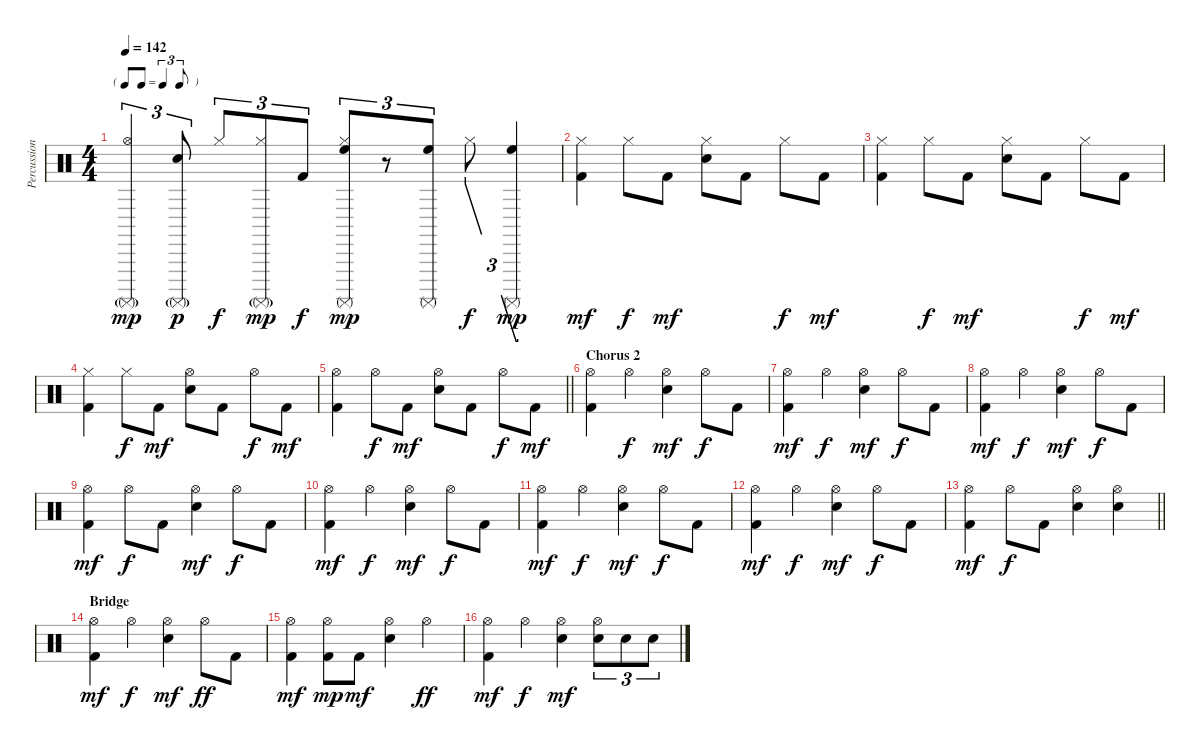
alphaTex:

\track ("Percussion" "Percussion") {instrument percussion}
\staff {score}
\articulation defaults
\ts (4 4)
\tf triplet8th
\tempo 142
\clef neutral
\ks c
("Surdo (mute)"{g} "Hi-Hat (open)").4{tu (3 2) dy mp} ("Surdo (mute)"{g} "Electric Snare (hit)").8{tu (3 2) dy p} "Hi-Hat (closed)".8{tu (3 2) dy f} ("Surdo (mute)"{g} "Hi-Hat (closed)").8{tu (3 2) dy mp} "Kick (hit) 2".8{tu (3 2) dy f} ("Hi-Hat (closed)" "High Floor Tom (hit)" "Surdo (mute)").8{tu (3 2) dy mp} r.8{tu (3 2)} ("High Floor Tom (hit)" "Surdo (mute)").8{tu (3 2)} "Hi-Hat (closed)".8{tu (3 2) dy f} ("High Floor Tom (hit)" "Surdo (mute)").4{tu (3 2) dy mp} |
("Hi-Hat (closed)" "Kick (hit) 2").4{dy mf} "Hi-Hat (closed)".8{dy f} "Kick (hit) 2".8{dy mf} ("Hi-Hat (closed)" "Electric Snare (hit)").8 "Kick (hit) 2".8 "Hi-Hat (closed)".8{dy f} "Kick (hit) 2".8{dy mf} |
("Hi-Hat (closed)" "Kick (hit) 2").4 "Hi-Hat (closed)".8{dy f} "Kick (hit) 2".8{dy mf} ("Hi-Hat (closed)" "Electric Snare (hit)").8 "Kick (hit) 2".8 "Hi-Hat (closed)".8{dy f} "Kick (hit) 2".8{dy mf} |
("Hi-Hat (closed)" "Kick (hit) 2").4 "Hi-Hat (closed)".8{dy f} "Kick (hit) 2".8{dy mf} ("Hi-Hat (open)" "Electric Snare (hit)").8 "Kick (hit) 2".8 "Hi-Hat (open)".8{dy f} "Kick (hit) 2".8{dy mf} |
\barLineRight lightlight
("Hi-Hat (open)" "Kick (hit) 2").4 "Hi-Hat (open)".8{dy f} "Kick (hit) 2".8{dy mf} ("Hi-Hat (open)" "Electric Snare (hit)").8 "Kick (hit) 2".8 "Hi-Hat (open)".8{dy f} "Kick (hit) 2".8{dy mf} |
\section ("" "Chorus 2")
("Hi-Hat (open)" "Kick (hit) 2").4 "Hi-Hat (open)".4{dy f} ("Hi-Hat (open)" "Electric Snare (hit)").4{dy mf} "Hi-Hat (open)".8{dy f} "Kick (hit) 2".8 |
("Hi-Hat (open)" "Kick (hit) 2").4{dy mf} "Hi-Hat (open)".4{dy f} ("Hi-Hat (open)" "Electric Snare (hit)").4{dy mf} "Hi-Hat (open)".8{dy f} "Kick (hit) 2".8 |
("Hi-Hat (open)" "Kick (hit) 2").4{dy mf} "Hi-Hat (open)".4{dy f} ("Hi-Hat (open)" "Electric Snare (hit)").4{dy mf} "Hi-Hat (open)".8{dy f} "Kick (hit) 2".8 |
("Hi-Hat (open)" "Kick (hit) 2").4{dy mf} "Hi-Hat (open)".8{dy f} "Kick (hit) 2".8 ("Hi-Hat (open)" "Electric Snare (hit)").4{dy mf} "Hi-Hat (open)".8{dy f} "Kick (hit) 2".8 |
("Hi-Hat (open)" "Kick (hit) 2").4{dy mf} "Hi-Hat (open)".4{dy f} ("Hi-Hat (open)" "Electric Snare (hit)").4{dy mf} "Hi-Hat (open)".8{dy f} "Kick (hit) 2".8 |
("Hi-Hat (open)" "Kick (hit) 2").4{dy mf} "Hi-Hat (open)".4{dy f} ("Hi-Hat (open)" "Electric Snare (hit)").4{dy mf} "Hi-Hat (open)".8{dy f} "Kick (hit) 2".8 |
("Hi-Hat (open)" "Kick (hit) 2").4{dy mf} "Hi-Hat (open)".4{dy f} ("Hi-Hat (open)" "Electric Snare (hit)").4{dy mf} "Hi-Hat (open)".8{dy f} "Kick (hit) 2".8 |
\barLineRight lightlight
("Hi-Hat (open)" "Kick (hit) 2").4{dy mf} "Hi-Hat (open)".8{dy f} "Kick (hit) 2".8 ("Hi-Hat (open)" "Electric Snare (hit)").4 ("Hi-Hat (open)" "Electric Snare (hit)").4 |
\section ("" "Bridge")
("Hi-Hat (open)" "Kick (hit) 2").4{dy mf} "Hi-Hat (open)".4{dy f} ("Hi-Hat (open)" "Electric Snare (hit)").4{dy mf} "Hi-Hat (open)".8{dy ff} "Kick (hit) 2".8 |
("Hi-Hat (open)" "Kick (hit) 2").4{dy mf} ("Hi-Hat (open)" "Kick (hit) 2").8{dy mp} "Kick (hit) 2".8{dy mf} ("Hi-Hat (open)" "Electric Snare (hit)").4 "Hi-Hat (open)".4{dy ff} |
("Hi-Hat (open)" "Kick (hit) 2").4{dy mf} "Hi-Hat (open)".4{dy f} ("Hi-Hat (open)" "Electric Snare (hit)").4{dy mf} ("Hi-Hat (open)" "Electric Snare (hit)").8{tu (3 2)} "Electric Snare (hit)".8{tu (3 2)} "Electric Snare (hit)".8{tu (3 2)}
